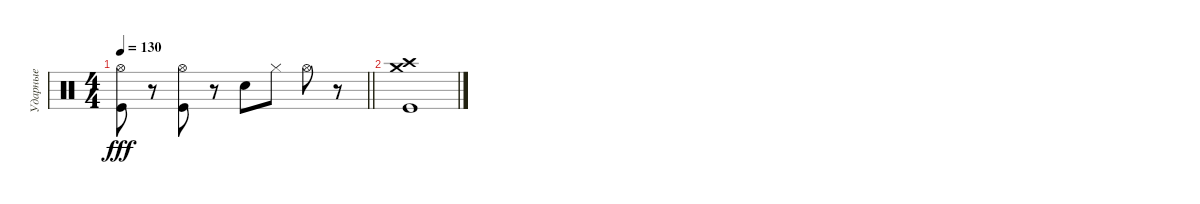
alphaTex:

\track ("Ударные" "Ударные") {instrument percussion}
\staff {score}
\articulation defaults
\ts (4 4)
\tempo 130
\clef neutral
\barLineRight lightlight
\ks c
("Kick (hit)" "Hi-Hat (open)").8{dy fff} r.8 ("Kick (hit)" "Hi-Hat (open)").8 r.8 "Electric Snare (hit)".8 "Hi-Hat (closed)".8 "Hi-Hat (open)".8 r.8 |
("Crash high (hit)" "Crash medium (hit)" "Kick (hit)").1
